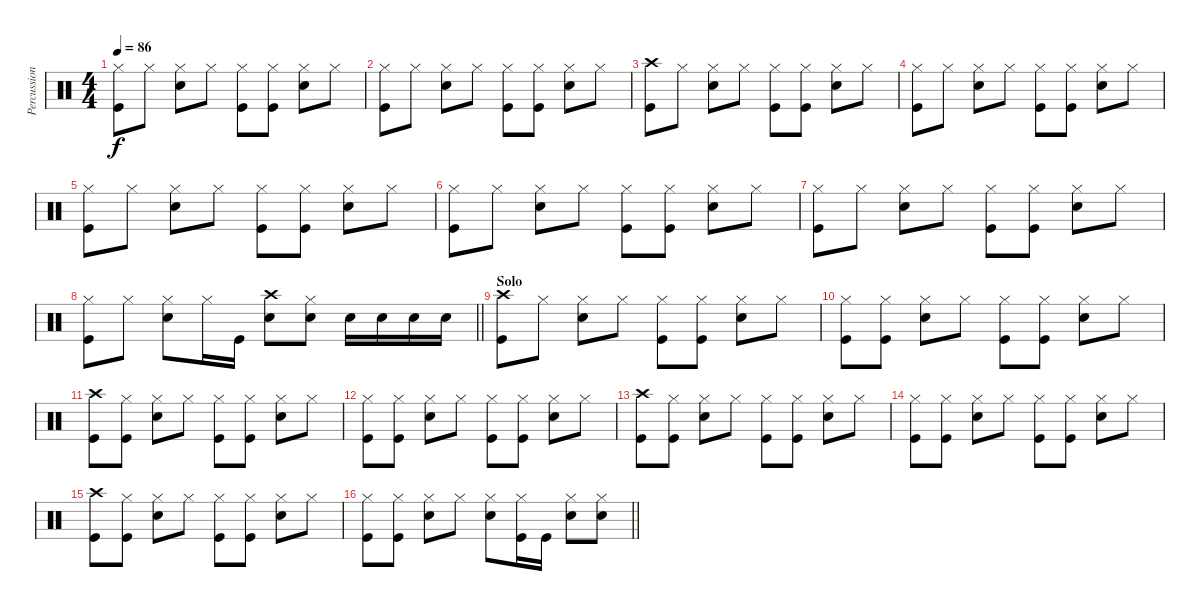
\track ("Percussion" "Percussion") {instrument percussion}
\staff {score}
\articulation defaults
\ts (4 4)
\tempo 86
\clef neutral
\ks c
("Hi-Hat (closed)" "Kick (hit)").8{dy f} "Hi-Hat (closed)".8 ("Hi-Hat (closed)" "Electric Snare (hit)").8 "Hi-Hat (closed)".8 ("Hi-Hat (closed)" "Kick (hit)").8 ("Hi-Hat (closed)" "Kick (hit)").8 ("Hi-Hat (closed)" "Electric Snare (hit)").8 "Hi-Hat (closed)".8 |
("Hi-Hat (closed)" "Kick (hit)").8 "Hi-Hat (closed)".8 ("Hi-Hat (closed)" "Electric Snare (hit)").8 "Hi-Hat (closed)".8 ("Hi-Hat (closed)" "Kick (hit)").8 ("Hi-Hat (closed)" "Kick (hit)").8 ("Hi-Hat (closed)" "Electric Snare (hit)").8 "Hi-Hat (closed)".8 |
("Crash high (hit)" "Kick (hit)").8 "Hi-Hat (closed)".8 ("Hi-Hat (closed)" "Electric Snare (hit)").8 "Hi-Hat (closed)".8 ("Hi-Hat (closed)" "Kick (hit)").8 ("Hi-Hat (closed)" "Kick (hit)").8 ("Hi-Hat (closed)" "Electric Snare (hit)").8 "Hi-Hat (closed)".8 |
("Hi-Hat (closed)" "Kick (hit)").8 "Hi-Hat (closed)".8 ("Hi-Hat (closed)" "Electric Snare (hit)").8 "Hi-Hat (closed)".8 ("Hi-Hat (closed)" "Kick (hit)").8 ("Hi-Hat (closed)" "Kick (hit)").8 ("Hi-Hat (closed)" "Electric Snare (hit)").8 "Hi-Hat (closed)".8 |
("Hi-Hat (closed)" "Kick (hit)").8 "Hi-Hat (closed)".8 ("Hi-Hat (closed)" "Electric Snare (hit)").8 "Hi-Hat (closed)".8 ("Hi-Hat (closed)" "Kick (hit)").8 ("Hi-Hat (closed)" "Kick (hit)").8 ("Hi-Hat (closed)" "Electric Snare (hit)").8 "Hi-Hat (closed)".8 |
("Hi-Hat (closed)" "Kick (hit)").8 "Hi-Hat (closed)".8 ("Hi-Hat (closed)" "Electric Snare (hit)").8 "Hi-Hat (closed)".8 ("Hi-Hat (closed)" "Kick (hit)").8 ("Hi-Hat (closed)" "Kick (hit)").8 ("Hi-Hat (closed)" "Electric Snare (hit)").8 "Hi-Hat (closed)".8 |
("Hi-Hat (closed)" "Kick (hit)").8 "Hi-Hat (closed)".8 ("Hi-Hat (closed)" "Electric Snare (hit)").8 "Hi-Hat (closed)".8 ("Hi-Hat (closed)" "Kick (hit)").8 ("Hi-Hat (closed)" "Kick (hit)").8 ("Hi-Hat (closed)" "Electric Snare (hit)").8 "Hi-Hat (closed)".8 |
\barLineRight lightlight
("Hi-Hat (closed)" "Kick (hit)").8 "Hi-Hat (closed)".8 ("Hi-Hat (closed)" "Electric Snare (hit)").8 "Hi-Hat (closed)".16 "Kick (hit)".16 ("Crash high (hit)" "Electric Snare (hit)").8 ("Hi-Hat (closed)" "Electric Snare (hit)").8 "Electric Snare (hit)".16 "Electric Snare (hit)".16 "Electric Snare (hit)".16 "Electric Snare (hit)".16 |
\section ("" "Solo")
("Crash high (hit)" "Kick (hit)").8 "Hi-Hat (closed)".8 ("Hi-Hat (closed)" "Electric Snare (hit)").8 "Hi-Hat (closed)".8 ("Hi-Hat (closed)" "Kick (hit)").8 ("Hi-Hat (closed)" "Kick (hit)").8 ("Hi-Hat (closed)" "Electric Snare (hit)").8 "Hi-Hat (closed)".8 |
("Hi-Hat (closed)" "Kick (hit)").8 ("Hi-Hat (closed)" "Kick (hit)").8 ("Hi-Hat (closed)" "Electric Snare (hit)").8 "Hi-Hat (closed)".8 ("Hi-Hat (closed)" "Kick (hit)").8 ("Hi-Hat (closed)" "Kick (hit)").8 ("Hi-Hat (closed)" "Electric Snare (hit)").8 "Hi-Hat (closed)".8 |
("Crash high (hit)" "Kick (hit)").8 ("Hi-Hat (closed)" "Kick (hit)").8 ("Hi-Hat (closed)" "Electric Snare (hit)").8 "Hi-Hat (closed)".8 ("Hi-Hat (closed)" "Kick (hit)").8 ("Hi-Hat (closed)" "Kick (hit)").8 ("Hi-Hat (closed)" "Electric Snare (hit)").8 "Hi-Hat (closed)".8 |
("Hi-Hat (closed)" "Kick (hit)").8 ("Hi-Hat (closed)" "Kick (hit)").8 ("Hi-Hat (closed)" "Electric Snare (hit)").8 "Hi-Hat (closed)".8 ("Hi-Hat (closed)" "Kick (hit)").8 ("Hi-Hat (closed)" "Kick (hit)").8 ("Hi-Hat (closed)" "Electric Snare (hit)").8 "Hi-Hat (closed)".8 |
("Crash high (hit)" "Kick (hit)").8 ("Hi-Hat (closed)" "Kick (hit)").8 ("Hi-Hat (closed)" "Electric Snare (hit)").8 "Hi-Hat (closed)".8 ("Hi-Hat (closed)" "Kick (hit)").8 ("Hi-Hat (closed)" "Kick (hit)").8 ("Hi-Hat (closed)" "Electric Snare (hit)").8 "Hi-Hat (closed)".8 |
("Hi-Hat (closed)" "Kick (hit)").8 ("Hi-Hat (closed)" "Kick (hit)").8 ("Hi-Hat (closed)" "Electric Snare (hit)").8 "Hi-Hat (closed)".8 ("Hi-Hat (closed)" "Kick (hit)").8 ("Hi-Hat (closed)" "Kick (hit)").8 ("Hi-Hat (closed)" "Electric Snare (hit)").8 "Hi-Hat (closed)".8 |
("Crash high (hit)" "Kick (hit)").8 ("Hi-Hat (closed)" "Kick (hit)").8 ("Hi-Hat (closed)" "Electric Snare (hit)").8 "Hi-Hat (closed)".8 ("Hi-Hat (closed)" "Kick (hit)").8 ("Hi-Hat (closed)" "Kick (hit)").8 ("Hi-Hat (closed)" "Electric Snare (hit)").8 "Hi-Hat (closed)".8 |
\barLineRight lightlight
("Hi-Hat (closed)" "Kick (hit)").8 ("Hi-Hat (closed)" "Kick (hit)").8 ("Hi-Hat (closed)" "Electric Snare (hit)").8 "Hi-Hat (closed)".8 ("Hi-Hat (closed)" "Electric Snare (hit)").8 ("Hi-Hat (closed)" "Kick (hit)").16 "Kick (hit)".16 ("Hi-Hat (closed)" "Electric Snare (hit)").8 ("Hi-Hat (closed)" "Electric Snare (hit)").8
